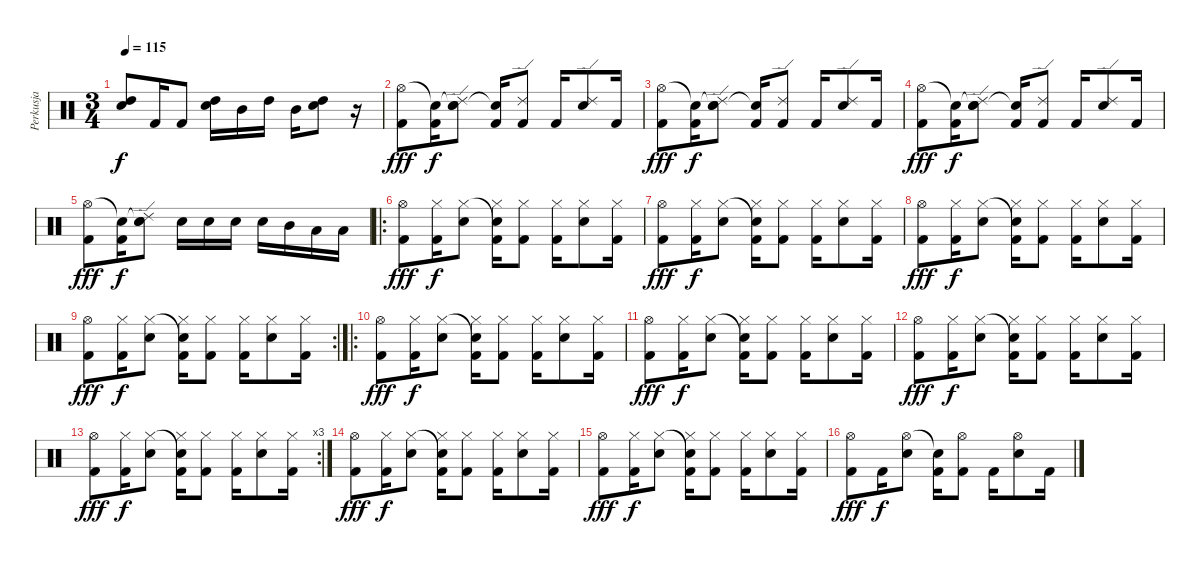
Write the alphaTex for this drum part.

\track ("Perkusja" "Perkusja") {instrument percussion}
\staff {score}
\articulation defaults
\ts (3 4)
\tempo 115
\clef neutral
\ks c
("Snare (hit) 2" "High Tom (hit)").8{dy f} "Kick (hit) 2".16 "Kick (hit) 2".8 ("Snare (hit) 2" "High Tom (hit)").16 "Mid Tom (hit)".16 "High Tom (hit)".16 "Mid Tom (hit)".16 ("Snare (hit) 2" "High Tom (hit)").8 r.16 |
("Hi-Hat (open)" "Kick (hit) 2").8{dy fff} ("Snare (hit)"{t} "Kick (hit) 2").16{dy f} ("Snare (hit)"{t} "Ride (edge) 2" "Snare (hit) 2").8 ("Snare (hit)"{t} "Kick (hit) 2").16 ("Ride (edge) 2" "Kick (hit) 2").8 "Kick (hit) 2".16 ("Ride (edge) 2" "Snare (hit) 2").8 "Kick (hit) 2".16 |
("Hi-Hat (open)" "Kick (hit) 2").8{dy fff} ("Snare (hit)"{t} "Kick (hit) 2").16{dy f} ("Snare (hit)"{t} "Ride (edge) 2" "Snare (hit) 2").8 ("Snare (hit)"{t} "Kick (hit) 2").16 ("Ride (edge) 2" "Kick (hit) 2").8 "Kick (hit) 2".16 ("Ride (edge) 2" "Snare (hit) 2").8 "Kick (hit) 2".16 |
("Hi-Hat (open)" "Kick (hit) 2").8{dy fff} ("Snare (hit)"{t} "Kick (hit) 2").16{dy f} ("Snare (hit)"{t} "Ride (edge) 2" "Snare (hit) 2").8 ("Snare (hit)"{t} "Kick (hit) 2").16 ("Ride (edge) 2" "Kick (hit) 2").8 "Kick (hit) 2".16 ("Ride (edge) 2" "Snare (hit) 2").8 "Kick (hit) 2".16 |
("Hi-Hat (open)" "Kick (hit) 2").8{dy fff} ("Snare (hit)"{t} "Kick (hit) 2").16{dy f} ("Snare (hit)"{t} "Ride (edge) 2" "Snare (hit) 2").8 "Snare (hit) 2".16 "Snare (hit) 2".16 "Snare (hit) 2".16 "Snare (hit) 2".16 "Mid Tom (hit)".16 "Low Tom (hit)".16 "Low Tom (hit)".16 |
\ro
("Hi-Hat (open)" "Kick (hit) 2").8{dy fff} ("Hi-Hat (closed)" "Kick (hit) 2").16{dy f} ("Hi-Hat (closed)" "Snare (hit) 2").8 ("Snare (hit)"{t} "Hi-Hat (closed)" "Kick (hit) 2").16 ("Hi-Hat (closed)" "Kick (hit) 2").8 ("Hi-Hat (closed)" "Kick (hit) 2").16 ("Hi-Hat (closed)" "Snare (hit) 2").8 ("Hi-Hat (closed)" "Kick (hit) 2").16 |
("Hi-Hat (open)" "Kick (hit) 2").8{dy fff} ("Hi-Hat (closed)" "Kick (hit) 2").16{dy f} ("Hi-Hat (closed)" "Snare (hit) 2").8 ("Snare (hit)"{t} "Hi-Hat (closed)" "Kick (hit) 2").16 ("Hi-Hat (closed)" "Kick (hit) 2").8 ("Hi-Hat (closed)" "Kick (hit) 2").16 ("Hi-Hat (closed)" "Snare (hit) 2").8 ("Hi-Hat (closed)" "Kick (hit) 2").16 |
("Hi-Hat (open)" "Kick (hit) 2").8{dy fff} ("Hi-Hat (closed)" "Kick (hit) 2").16{dy f} ("Hi-Hat (closed)" "Snare (hit) 2").8 ("Snare (hit)"{t} "Hi-Hat (closed)" "Kick (hit) 2").16 ("Hi-Hat (closed)" "Kick (hit) 2").8 ("Hi-Hat (closed)" "Kick (hit) 2").16 ("Hi-Hat (closed)" "Snare (hit) 2").8 ("Hi-Hat (closed)" "Kick (hit) 2").16 |
\rc 2
("Hi-Hat (open)" "Kick (hit) 2").8{dy fff} ("Hi-Hat (closed)" "Kick (hit) 2").16{dy f} ("Hi-Hat (closed)" "Snare (hit) 2").8 ("Snare (hit)"{t} "Hi-Hat (closed)" "Kick (hit) 2").16 ("Hi-Hat (closed)" "Kick (hit) 2").8 ("Hi-Hat (closed)" "Kick (hit) 2").16 ("Hi-Hat (closed)" "Snare (hit) 2").8 ("Hi-Hat (closed)" "Kick (hit) 2").16 |
\ro
("Hi-Hat (open)" "Kick (hit) 2").8{dy fff} ("Hi-Hat (closed)" "Kick (hit) 2").16{dy f} ("Hi-Hat (closed)" "Snare (hit) 2").8 ("Snare (hit)"{t} "Hi-Hat (closed)" "Kick (hit) 2").16 ("Hi-Hat (closed)" "Kick (hit) 2").8 ("Hi-Hat (closed)" "Kick (hit) 2").16 ("Hi-Hat (closed)" "Snare (hit) 2").8 ("Hi-Hat (closed)" "Kick (hit) 2").16 |
("Hi-Hat (open)" "Kick (hit) 2").8{dy fff} ("Hi-Hat (closed)" "Kick (hit) 2").16{dy f} ("Hi-Hat (closed)" "Snare (hit) 2").8 ("Snare (hit)"{t} "Hi-Hat (closed)" "Kick (hit) 2").16 ("Hi-Hat (closed)" "Kick (hit) 2").8 ("Hi-Hat (closed)" "Kick (hit) 2").16 ("Hi-Hat (closed)" "Snare (hit) 2").8 ("Hi-Hat (closed)" "Kick (hit) 2").16 |
("Hi-Hat (open)" "Kick (hit) 2").8{dy fff} ("Hi-Hat (closed)" "Kick (hit) 2").16{dy f} ("Hi-Hat (closed)" "Snare (hit) 2").8 ("Snare (hit)"{t} "Hi-Hat (closed)" "Kick (hit) 2").16 ("Hi-Hat (closed)" "Kick (hit) 2").8 ("Hi-Hat (closed)" "Kick (hit) 2").16 ("Hi-Hat (closed)" "Snare (hit) 2").8 ("Hi-Hat (closed)" "Kick (hit) 2").16 |
\rc 3
("Hi-Hat (open)" "Kick (hit) 2").8{dy fff} ("Hi-Hat (closed)" "Kick (hit) 2").16{dy f} ("Hi-Hat (closed)" "Snare (hit) 2").8 ("Snare (hit)"{t} "Hi-Hat (closed)" "Kick (hit) 2").16 ("Hi-Hat (closed)" "Kick (hit) 2").8 ("Hi-Hat (closed)" "Kick (hit) 2").16 ("Hi-Hat (closed)" "Snare (hit) 2").8 ("Hi-Hat (closed)" "Kick (hit) 2").16 |
("Hi-Hat (open)" "Kick (hit) 2").8{dy fff} ("Hi-Hat (closed)" "Kick (hit) 2").16{dy f} ("Hi-Hat (closed)" "Snare (hit) 2").8 ("Snare (hit)"{t} "Hi-Hat (closed)" "Kick (hit) 2").16 ("Hi-Hat (closed)" "Kick (hit) 2").8 ("Hi-Hat (closed)" "Kick (hit) 2").16 ("Hi-Hat (closed)" "Snare (hit) 2").8 ("Hi-Hat (closed)" "Kick (hit) 2").16 |
("Hi-Hat (open)" "Kick (hit) 2").8{dy fff} ("Hi-Hat (closed)" "Kick (hit) 2").16{dy f} ("Hi-Hat (closed)" "Snare (hit) 2").8 ("Snare (hit)"{t} "Hi-Hat (closed)" "Kick (hit) 2").16 ("Hi-Hat (closed)" "Kick (hit) 2").8 ("Hi-Hat (closed)" "Kick (hit) 2").16 ("Hi-Hat (closed)" "Snare (hit) 2").8 ("Hi-Hat (closed)" "Kick (hit) 2").16 |
("Hi-Hat (open)" "Kick (hit) 2").8{dy fff} "Kick (hit) 2".16{dy f} ("Hi-Hat (open)" "Snare (hit) 2").8 ("Snare (hit)"{t} "Kick (hit) 2").16 ("Hi-Hat (open)" "Kick (hit) 2").8 "Kick (hit) 2".16 ("Hi-Hat (open)" "Snare (hit) 2").8 "Kick (hit) 2".16
